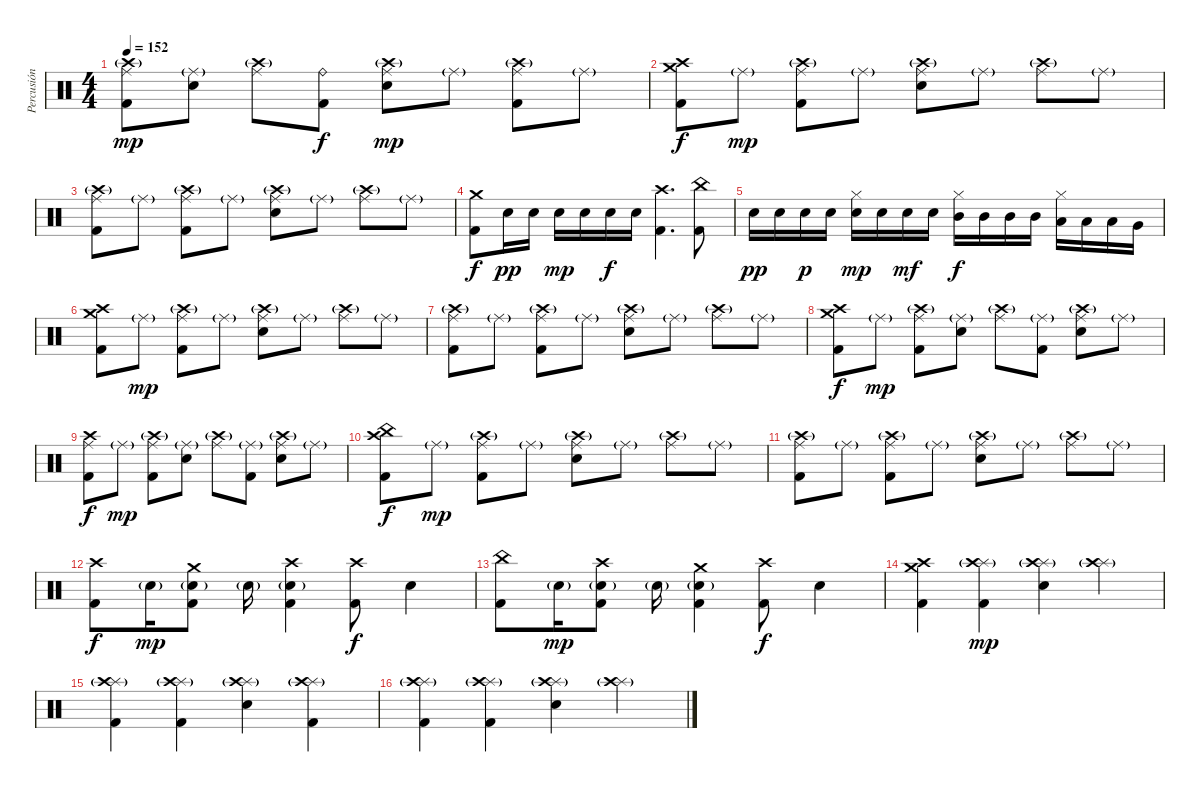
\track ("Percusión" "Percusión") {instrument percussion}
\staff {score}
\articulation defaults
\ts (4 4)
\tempo 152
\clef neutral
\ks c
("Crash high (hit)"{g} "Ride (middle)" "Kick (hit) 2").8{dy mp} ("Ride (middle)"{g} "Snare (hit) 2").8 ("Crash high (hit)"{g} "Ride (middle)").8 ("Ride (bell)" "Kick (hit) 2").8{dy f} ("Crash high (hit)"{g} "Ride (middle)" "Snare (hit) 2").8{dy mp} "Ride (middle)"{g}.8 ("Crash high (hit)"{g} "Ride (middle)" "Kick (hit) 2").8 "Ride (middle)"{g}.8 |
("Crash high (hit)" "Crash medium (hit)" "Kick (hit) 2").8{dy f} "Ride (middle)"{g}.8{dy mp} ("Crash high (hit)"{g} "Ride (middle)" "Kick (hit) 2").8 "Ride (middle)"{g}.8 ("Crash high (hit)"{g} "Ride (middle)" "Snare (hit) 2").8 "Ride (middle)"{g}.8 ("Crash high (hit)"{g} "Ride (middle)").8 "Ride (middle)"{g}.8 |
("Crash high (hit)"{g} "Ride (middle)" "Kick (hit) 2").8 "Ride (middle)"{g}.8 ("Crash high (hit)"{g} "Ride (middle)" "Kick (hit) 2").8 "Ride (middle)"{g}.8 ("Crash high (hit)"{g} "Ride (middle)" "Snare (hit) 2").8 "Ride (middle)"{g}.8 ("Crash high (hit)"{g} "Ride (middle)").8 "Ride (middle)"{g}.8 |
("Crash medium (hit)" "Kick (hit) 2").8{dy f} "Snare (hit) 2".16{dy pp} "Snare (hit) 2".16 "Snare (hit) 2".16{dy mp} "Snare (hit) 2".16 "Snare (hit) 2".16{dy f} "Snare (hit) 2".16 ("Crash high (hit)" "Kick (hit) 2").4{d} ("China (hit)" "Kick (hit) 2").8 |
"Snare (hit) 2".16{dy pp} "Snare (hit) 2".16 "Snare (hit) 2".16{dy p} "Snare (hit) 2".16 ("Hi-Hat (closed)" "Snare (hit) 2").16{dy mp} "Snare (hit) 2".16 "Snare (hit) 2".16{dy mf} "Snare (hit) 2".16 ("Mid Tom (hit)" "Hi-Hat (closed)").16{dy f} "Mid Tom (hit)".16 "Mid Tom (hit)".16 "Mid Tom (hit)".16 ("Low Tom (hit)" "Hi-Hat (closed)").16 "Low Tom (hit)".16 "Low Tom (hit)".16 "Very Low Tom (hit)".16 |
("Crash high (hit)" "Crash medium (hit)" "Kick (hit) 2").8 "Ride (middle)"{g}.8{dy mp} ("Crash high (hit)"{g} "Ride (middle)" "Kick (hit) 2").8 "Ride (middle)"{g}.8 ("Crash high (hit)"{g} "Ride (middle)" "Snare (hit) 2").8 "Ride (middle)"{g}.8 ("Crash high (hit)"{g} "Ride (middle)").8 "Ride (middle)"{g}.8 |
("Crash high (hit)"{g} "Ride (middle)" "Kick (hit) 2").8 "Ride (middle)"{g}.8 ("Crash high (hit)"{g} "Ride (middle)" "Kick (hit) 2").8 "Ride (middle)"{g}.8 ("Crash high (hit)"{g} "Ride (middle)" "Snare (hit) 2").8 "Ride (middle)"{g}.8 ("Crash high (hit)"{g} "Ride (middle)").8 "Ride (middle)"{g}.8 |
("Crash high (hit)" "Crash medium (hit)" "Kick (hit) 2").8{dy f} "Ride (middle)"{g}.8{dy mp} ("Crash high (hit)"{g} "Ride (middle)" "Kick (hit) 2").8 ("Ride (middle)"{g} "Snare (hit) 2").8 ("Crash high (hit)"{g} "Ride (middle)").8 ("Ride (middle)"{g} "Kick (hit) 2").8 ("Crash high (hit)"{g} "Ride (middle)" "Snare (hit) 2").8 "Ride (middle)"{g}.8 |
("Crash high (hit)" "Ride (middle)" "Kick (hit) 2").8{dy f} "Ride (middle)"{g}.8{dy mp} ("Crash high (hit)"{g} "Ride (middle)" "Kick (hit) 2").8 ("Ride (middle)"{g} "Snare (hit) 2").8 ("Crash high (hit)"{g} "Ride (middle)").8 ("Ride (middle)"{g} "Kick (hit) 2").8 ("Crash high (hit)"{g} "Ride (middle)" "Snare (hit) 2").8 "Ride (middle)"{g}.8 |
("Crash high (hit)" "China (hit)" "Kick (hit) 2").8{dy f} "Ride (middle)"{g}.8{dy mp} ("Crash high (hit)"{g} "Ride (middle)" "Kick (hit) 2").8 "Ride (middle)"{g}.8 ("Crash high (hit)"{g} "Ride (middle)" "Snare (hit) 2").8 "Ride (middle)"{g}.8 ("Crash high (hit)"{g} "Ride (middle)").8 "Ride (middle)"{g}.8 |
("Crash high (hit)"{g} "Ride (middle)" "Kick (hit) 2").8 "Ride (middle)"{g}.8 ("Crash high (hit)"{g} "Ride (middle)" "Kick (hit) 2").8 "Ride (middle)"{g}.8 ("Crash high (hit)"{g} "Ride (middle)" "Snare (hit) 2").8 "Ride (middle)"{g}.8 ("Crash high (hit)"{g} "Ride (middle)").8 "Ride (middle)"{g}.8 |
("Crash high (hit)" "Kick (hit) 2").8{dy f} "Snare (hit) 2"{g}.16{dy mp} ("Crash medium (hit)" "Snare (hit) 2"{g} "Kick (hit) 2").8 "Snare (hit) 2"{g}.16 ("Crash high (hit)" "Snare (hit) 2"{g} "Kick (hit) 2").4 ("Crash high (hit)" "Kick (hit) 2").8{dy f} "Snare (hit) 2".4 |
("China (hit)" "Kick (hit) 2").8 "Snare (hit) 2"{g}.16{dy mp} ("Crash high (hit)" "Snare (hit) 2"{g} "Kick (hit) 2").8 "Snare (hit) 2"{g}.16 ("Crash medium (hit)" "Snare (hit) 2"{g} "Kick (hit) 2").4 ("Crash high (hit)" "Kick (hit) 2").8{dy f} "Snare (hit) 2".4 |
("Crash medium (hit)" "Crash high (hit)" "Kick (hit) 2").4 ("Splash (hit)" "Crash high (hit)"{g} "Kick (hit) 2").4{dy mp} ("Splash (hit)" "Crash high (hit)"{g} "Snare (hit) 2").4 ("Splash (hit)" "Crash high (hit)"{g}).4 |
("Splash (hit)" "Crash high (hit)"{g} "Kick (hit) 2").4 ("Splash (hit)" "Crash high (hit)"{g} "Kick (hit) 2").4 ("Splash (hit)" "Crash high (hit)"{g} "Snare (hit) 2").4 ("Splash (hit)" "Crash high (hit)"{g} "Kick (hit) 2").4 |
("Splash (hit)" "Crash high (hit)"{g} "Kick (hit) 2").4 ("Splash (hit)" "Crash high (hit)"{g} "Kick (hit) 2").4 ("Splash (hit)" "Crash high (hit)"{g} "Snare (hit) 2").4 ("Splash (hit)" "Crash high (hit)"{g}).4
